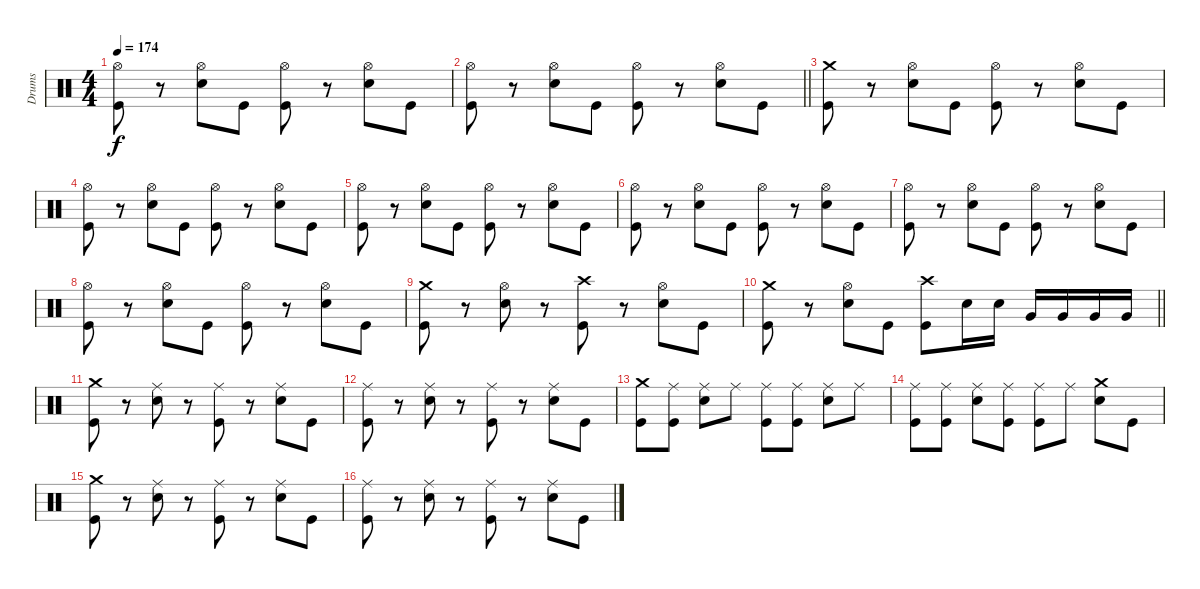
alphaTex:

\track ("Drums" "Drums") {instrument percussion}
\staff {score}
\articulation defaults
\ts (4 4)
\tempo 174
\clef neutral
\ks c
("Hi-Hat (open)" "Kick (hit)").8{dy f} r.8 ("Hi-Hat (open)" "Snare (hit) 2").8 "Kick (hit)".8 ("Hi-Hat (open)" "Kick (hit)").8 r.8 ("Hi-Hat (open)" "Snare (hit) 2").8 "Kick (hit)".8 |
\barLineRight lightlight
("Hi-Hat (open)" "Kick (hit)").8 r.8 ("Hi-Hat (open)" "Snare (hit) 2").8 "Kick (hit)".8 ("Hi-Hat (open)" "Kick (hit)").8 r.8 ("Hi-Hat (open)" "Snare (hit) 2").8 "Kick (hit)".8 |
("Crash medium (hit)" "Kick (hit)").8 r.8 ("Hi-Hat (open)" "Snare (hit) 2").8 "Kick (hit)".8 ("Hi-Hat (open)" "Kick (hit)").8 r.8 ("Hi-Hat (open)" "Snare (hit) 2").8 "Kick (hit)".8 |
("Hi-Hat (open)" "Kick (hit)").8 r.8 ("Hi-Hat (open)" "Snare (hit) 2").8 "Kick (hit)".8 ("Hi-Hat (open)" "Kick (hit)").8 r.8 ("Hi-Hat (open)" "Snare (hit) 2").8 "Kick (hit)".8 |
("Hi-Hat (open)" "Kick (hit)").8 r.8 ("Hi-Hat (open)" "Snare (hit) 2").8 "Kick (hit)".8 ("Hi-Hat (open)" "Kick (hit)").8 r.8 ("Hi-Hat (open)" "Snare (hit) 2").8 "Kick (hit)".8 |
("Hi-Hat (open)" "Kick (hit)").8 r.8 ("Hi-Hat (open)" "Snare (hit) 2").8 "Kick (hit)".8 ("Hi-Hat (open)" "Kick (hit)").8 r.8 ("Hi-Hat (open)" "Snare (hit) 2").8 "Kick (hit)".8 |
("Hi-Hat (open)" "Kick (hit)").8 r.8 ("Hi-Hat (open)" "Snare (hit) 2").8 "Kick (hit)".8 ("Hi-Hat (open)" "Kick (hit)").8 r.8 ("Hi-Hat (open)" "Snare (hit) 2").8 "Kick (hit)".8 |
("Hi-Hat (open)" "Kick (hit)").8 r.8 ("Hi-Hat (open)" "Snare (hit) 2").8 "Kick (hit)".8 ("Hi-Hat (open)" "Kick (hit)").8 r.8 ("Hi-Hat (open)" "Snare (hit) 2").8 "Kick (hit)".8 |
("Crash medium (hit)" "Kick (hit)").8 r.8 ("Hi-Hat (open)" "Snare (hit) 2").8 r.8 ("Crash high (hit)" "Kick (hit)").8 r.8 ("Hi-Hat (open)" "Snare (hit) 2").8 "Kick (hit)".8 |
\barLineRight lightlight
("Crash medium (hit)" "Kick (hit)").8 r.8 ("Hi-Hat (open)" "Snare (hit) 2").8 "Kick (hit)".8 ("Crash high (hit)" "Kick (hit)").8 "Snare (hit) 2".16 "Snare (hit) 2".16 "Very Low Tom (hit)".16 "Very Low Tom (hit)".16 "Very Low Tom (hit)".16 "Very Low Tom (hit)".16 |
("Crash medium (hit)" "Kick (hit)").8 r.8 ("Ride (middle)" "Snare (hit) 2").8 r.8 ("Ride (middle)" "Kick (hit)").8 r.8 ("Ride (middle)" "Snare (hit) 2").8 "Kick (hit)".8 |
("Ride (middle)" "Kick (hit)").8 r.8 ("Ride (middle)" "Snare (hit) 2").8 r.8 ("Ride (middle)" "Kick (hit)").8 r.8 ("Ride (middle)" "Snare (hit) 2").8 "Kick (hit)".8 |
("Crash medium (hit)" "Kick (hit)").8 ("Ride (middle)" "Kick (hit)").8 ("Ride (middle)" "Snare (hit) 2").8 "Ride (middle)".8 ("Ride (middle)" "Kick (hit)").8 ("Ride (middle)" "Kick (hit)").8 ("Ride (middle)" "Snare (hit) 2").8 "Ride (middle)".8 |
("Ride (middle)" "Kick (hit)").8 ("Ride (middle)" "Kick (hit)").8 ("Ride (middle)" "Snare (hit) 2").8 ("Ride (middle)" "Kick (hit)").8 ("Ride (middle)" "Kick (hit)").8 "Ride (middle)".8 ("Crash medium (hit)" "Snare (hit) 2").8 "Kick (hit)".8 |
("Crash medium (hit)" "Kick (hit)").8 r.8 ("Ride (middle)" "Snare (hit) 2").8 r.8 ("Ride (middle)" "Kick (hit)").8 r.8 ("Ride (middle)" "Snare (hit) 2").8 "Kick (hit)".8 |
("Ride (middle)" "Kick (hit)").8 r.8 ("Ride (middle)" "Snare (hit) 2").8 r.8 ("Ride (middle)" "Kick (hit)").8 r.8 ("Ride (middle)" "Snare (hit) 2").8 "Kick (hit)".8
